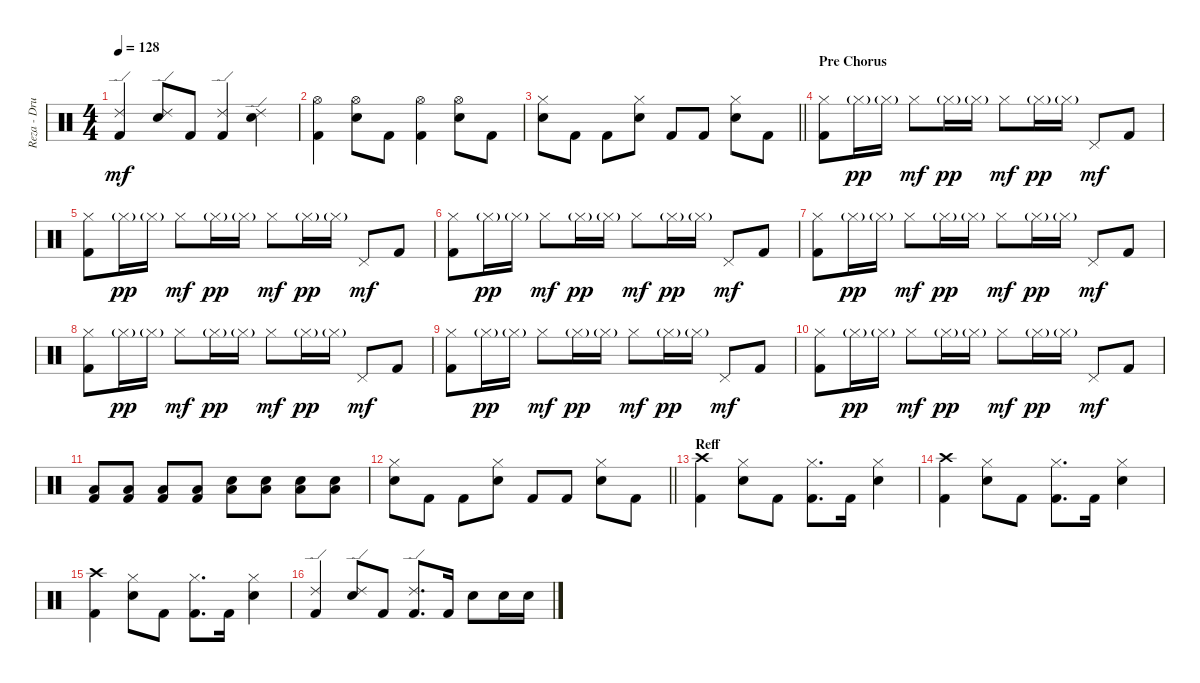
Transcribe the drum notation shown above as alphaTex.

\track ("Reza - Drum" "Reza - Dru") {instrument percussion}
\staff {score}
\articulation defaults
\ts (4 4)
\tempo 128
\clef neutral
\ks c
("Ride (edge) 2" "Kick (hit) 2").4{dy mf} ("Ride (edge) 2" "Electric Snare (hit)").8 "Kick (hit) 2".8 ("Ride (edge) 2" "Kick (hit) 2").4 ("Ride (edge) 2" "Electric Snare (hit)").4 |
("Hi-Hat (open)" "Kick (hit) 2").4 ("Hi-Hat (open)" "Electric Snare (hit)").8 "Kick (hit) 2".8 ("Hi-Hat (open)" "Kick (hit) 2").4 ("Hi-Hat (open)" "Electric Snare (hit)").8 "Kick (hit) 2".8 |
\barLineRight lightlight
("Hi-Hat (closed)" "Electric Snare (hit)").8 "Kick (hit) 2".8 "Kick (hit) 2".8 ("Hi-Hat (closed)" "Electric Snare (hit)").8 "Kick (hit) 2".8 "Kick (hit) 2".8 ("Hi-Hat (closed)" "Electric Snare (hit)").8 "Kick (hit) 2".8 |
\section ("" "Pre Chorus")
("Hi-Hat (closed)" "Kick (hit) 2").8 "Hi-Hat (closed)"{g}.16{dy pp} "Hi-Hat (closed)"{g}.16 "Hi-Hat (closed)".8{dy mf} "Hi-Hat (closed)"{g}.16{dy pp} "Hi-Hat (closed)"{g}.16 "Hi-Hat (closed)".8{dy mf} "Hi-Hat (closed)"{g}.16{dy pp} "Hi-Hat (closed)"{g}.16 "Pedal Hi-Hat (hit)".8{dy mf} "Kick (hit) 2".8 |
("Hi-Hat (closed)" "Kick (hit) 2").8 "Hi-Hat (closed)"{g}.16{dy pp} "Hi-Hat (closed)"{g}.16 "Hi-Hat (closed)".8{dy mf} "Hi-Hat (closed)"{g}.16{dy pp} "Hi-Hat (closed)"{g}.16 "Hi-Hat (closed)".8{dy mf} "Hi-Hat (closed)"{g}.16{dy pp} "Hi-Hat (closed)"{g}.16 "Pedal Hi-Hat (hit)".8{dy mf} "Kick (hit) 2".8 |
("Hi-Hat (closed)" "Kick (hit) 2").8 "Hi-Hat (closed)"{g}.16{dy pp} "Hi-Hat (closed)"{g}.16 "Hi-Hat (closed)".8{dy mf} "Hi-Hat (closed)"{g}.16{dy pp} "Hi-Hat (closed)"{g}.16 "Hi-Hat (closed)".8{dy mf} "Hi-Hat (closed)"{g}.16{dy pp} "Hi-Hat (closed)"{g}.16 "Pedal Hi-Hat (hit)".8{dy mf} "Kick (hit) 2".8 |
("Hi-Hat (closed)" "Kick (hit) 2").8 "Hi-Hat (closed)"{g}.16{dy pp} "Hi-Hat (closed)"{g}.16 "Hi-Hat (closed)".8{dy mf} "Hi-Hat (closed)"{g}.16{dy pp} "Hi-Hat (closed)"{g}.16 "Hi-Hat (closed)".8{dy mf} "Hi-Hat (closed)"{g}.16{dy pp} "Hi-Hat (closed)"{g}.16 "Pedal Hi-Hat (hit)".8{dy mf} "Kick (hit) 2".8 |
("Hi-Hat (closed)" "Kick (hit) 2").8 "Hi-Hat (closed)"{g}.16{dy pp} "Hi-Hat (closed)"{g}.16 "Hi-Hat (closed)".8{dy mf} "Hi-Hat (closed)"{g}.16{dy pp} "Hi-Hat (closed)"{g}.16 "Hi-Hat (closed)".8{dy mf} "Hi-Hat (closed)"{g}.16{dy pp} "Hi-Hat (closed)"{g}.16 "Pedal Hi-Hat (hit)".8{dy mf} "Kick (hit) 2".8 |
("Hi-Hat (closed)" "Kick (hit) 2").8 "Hi-Hat (closed)"{g}.16{dy pp} "Hi-Hat (closed)"{g}.16 "Hi-Hat (closed)".8{dy mf} "Hi-Hat (closed)"{g}.16{dy pp} "Hi-Hat (closed)"{g}.16 "Hi-Hat (closed)".8{dy mf} "Hi-Hat (closed)"{g}.16{dy pp} "Hi-Hat (closed)"{g}.16 "Pedal Hi-Hat (hit)".8{dy mf} "Kick (hit) 2".8 |
("Hi-Hat (closed)" "Kick (hit) 2").8 "Hi-Hat (closed)"{g}.16{dy pp} "Hi-Hat (closed)"{g}.16 "Hi-Hat (closed)".8{dy mf} "Hi-Hat (closed)"{g}.16{dy pp} "Hi-Hat (closed)"{g}.16 "Hi-Hat (closed)".8{dy mf} "Hi-Hat (closed)"{g}.16{dy pp} "Hi-Hat (closed)"{g}.16 "Pedal Hi-Hat (hit)".8{dy mf} "Kick (hit) 2".8 |
("Low Floor Tom (hit)" "Kick (hit) 2").8 ("Low Floor Tom (hit)" "Kick (hit) 2").8 ("Low Floor Tom (hit)" "Kick (hit) 2").8 ("Low Floor Tom (hit)" "Kick (hit) 2").8 ("Low Floor Tom (hit)" "Electric Snare (hit)").8 ("Low Floor Tom (hit)" "Electric Snare (hit)").8 ("Low Floor Tom (hit)" "Electric Snare (hit)").8 ("Low Floor Tom (hit)" "Electric Snare (hit)").8 |
\barLineRight lightlight
("Hi-Hat (closed)" "Electric Snare (hit)").8 "Kick (hit) 2".8 "Kick (hit) 2".8 ("Hi-Hat (closed)" "Electric Snare (hit)").8 "Kick (hit) 2".8 "Kick (hit) 2".8 ("Hi-Hat (closed)" "Electric Snare (hit)").8 "Kick (hit) 2".8 |
\section ("" "Reff")
("Crash high (hit)" "Kick (hit) 2").4 ("Hi-Hat (closed)" "Electric Snare (hit)").8 "Kick (hit) 2".8 ("Hi-Hat (closed)" "Kick (hit) 2").8{d} "Kick (hit) 2".16 ("Hi-Hat (closed)" "Electric Snare (hit)").4 |
("Crash high (hit)" "Kick (hit) 2").4 ("Hi-Hat (closed)" "Electric Snare (hit)").8 "Kick (hit) 2".8 ("Hi-Hat (closed)" "Kick (hit) 2").8{d} "Kick (hit) 2".16 ("Hi-Hat (closed)" "Electric Snare (hit)").4 |
("Crash high (hit)" "Kick (hit) 2").4 ("Hi-Hat (closed)" "Electric Snare (hit)").8 "Kick (hit) 2".8 ("Hi-Hat (closed)" "Kick (hit) 2").8{d} "Kick (hit) 2".16 ("Hi-Hat (closed)" "Electric Snare (hit)").4 |
("Ride (edge) 2" "Kick (hit) 2").4 ("Ride (edge) 2" "Electric Snare (hit)").8 "Kick (hit) 2".8 ("Ride (edge) 2" "Kick (hit) 2").8{d} "Kick (hit) 2".16 "Electric Snare (hit)".8 "Electric Snare (hit)".16 "Electric Snare (hit)".16
